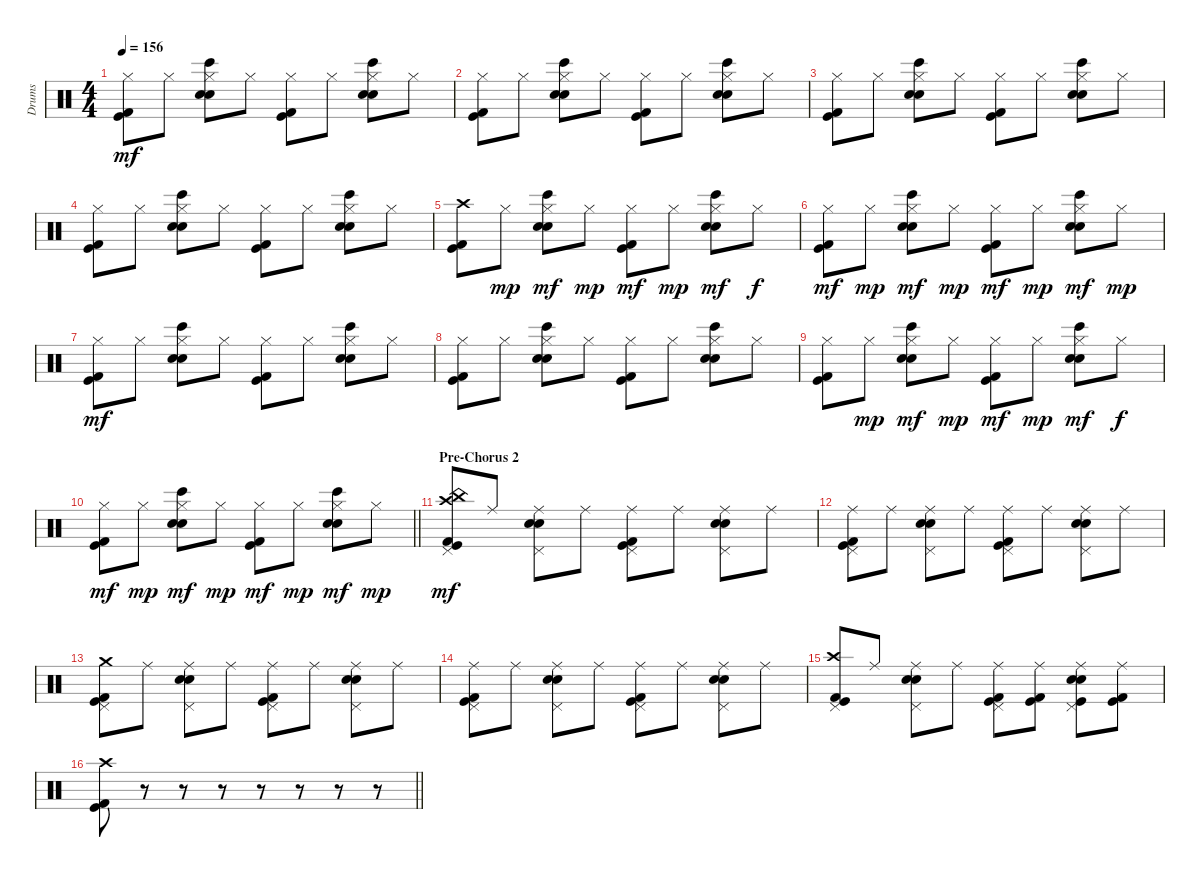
\track ("Drums" "Drums") {instrument percussion}
\staff {score}
\articulation defaults
\ts (4 4)
\tempo 156
\clef neutral
\ks c
("Hi-Hat (closed)" "Kick (hit) 2" "Kick (hit)").8{dy mf} "Hi-Hat (closed)".8 ("Hi-Hat (closed)" "Bongo High (hit)" "Snare (hit) 2" "Electric Snare (hit)").8 "Hi-Hat (closed)".8 ("Hi-Hat (closed)" "Kick (hit) 2" "Kick (hit)").8 "Hi-Hat (closed)".8 ("Hi-Hat (closed)" "Bongo High (hit)" "Snare (hit) 2" "Electric Snare (hit)").8 "Hi-Hat (closed)".8 |
("Hi-Hat (closed)" "Kick (hit) 2" "Kick (hit)").8 "Hi-Hat (closed)".8 ("Hi-Hat (closed)" "Bongo High (hit)" "Snare (hit) 2" "Electric Snare (hit)").8 "Hi-Hat (closed)".8 ("Hi-Hat (closed)" "Kick (hit) 2" "Kick (hit)").8 "Hi-Hat (closed)".8 ("Hi-Hat (closed)" "Bongo High (hit)" "Snare (hit) 2" "Electric Snare (hit)").8 "Hi-Hat (closed)".8 |
("Hi-Hat (closed)" "Kick (hit) 2" "Kick (hit)").8 "Hi-Hat (closed)".8 ("Hi-Hat (closed)" "Bongo High (hit)" "Snare (hit) 2" "Electric Snare (hit)").8 "Hi-Hat (closed)".8 ("Hi-Hat (closed)" "Kick (hit) 2" "Kick (hit)").8 "Hi-Hat (closed)".8 ("Hi-Hat (closed)" "Bongo High (hit)" "Snare (hit) 2" "Electric Snare (hit)").8 "Hi-Hat (closed)".8 |
("Hi-Hat (closed)" "Kick (hit) 2" "Kick (hit)").8 "Hi-Hat (closed)".8 ("Hi-Hat (closed)" "Bongo High (hit)" "Snare (hit) 2" "Electric Snare (hit)").8 "Hi-Hat (closed)".8 ("Hi-Hat (closed)" "Kick (hit) 2" "Kick (hit)").8 "Hi-Hat (closed)".8 ("Hi-Hat (closed)" "Bongo High (hit)" "Snare (hit) 2" "Electric Snare (hit)").8 "Hi-Hat (closed)".8 |
("Crash high (hit)" "Kick (hit) 2" "Kick (hit)").8 "Hi-Hat (closed)".8{dy mp} ("Hi-Hat (closed)" "Bongo High (hit)" "Snare (hit) 2" "Electric Snare (hit)").8{dy mf} "Hi-Hat (closed)".8{dy mp} ("Hi-Hat (closed)" "Kick (hit) 2" "Kick (hit)").8{dy mf} "Hi-Hat (closed)".8{dy mp} ("Hi-Hat (closed)" "Bongo High (hit)" "Snare (hit) 2" "Electric Snare (hit)").8{dy mf} "Hi-Hat (closed)".8{dy f} |
("Hi-Hat (closed)" "Kick (hit) 2" "Kick (hit)").8{dy mf} "Hi-Hat (closed)".8{dy mp} ("Hi-Hat (closed)" "Bongo High (hit)" "Snare (hit) 2" "Electric Snare (hit)").8{dy mf} "Hi-Hat (closed)".8{dy mp} ("Hi-Hat (closed)" "Kick (hit) 2" "Kick (hit)").8{dy mf} "Hi-Hat (closed)".8{dy mp} ("Hi-Hat (closed)" "Bongo High (hit)" "Snare (hit) 2" "Electric Snare (hit)").8{dy mf} "Hi-Hat (closed)".8{dy mp} |
("Hi-Hat (closed)" "Kick (hit) 2" "Kick (hit)").8{dy mf} "Hi-Hat (closed)".8 ("Hi-Hat (closed)" "Bongo High (hit)" "Snare (hit) 2" "Electric Snare (hit)").8 "Hi-Hat (closed)".8 ("Hi-Hat (closed)" "Kick (hit) 2" "Kick (hit)").8 "Hi-Hat (closed)".8 ("Hi-Hat (closed)" "Bongo High (hit)" "Snare (hit) 2" "Electric Snare (hit)").8 "Hi-Hat (closed)".8 |
("Hi-Hat (closed)" "Kick (hit) 2" "Kick (hit)").8 "Hi-Hat (closed)".8 ("Hi-Hat (closed)" "Bongo High (hit)" "Snare (hit) 2" "Electric Snare (hit)").8 "Hi-Hat (closed)".8 ("Hi-Hat (closed)" "Kick (hit) 2" "Kick (hit)").8 "Hi-Hat (closed)".8 ("Hi-Hat (closed)" "Bongo High (hit)" "Snare (hit) 2" "Electric Snare (hit)").8 "Hi-Hat (closed)".8 |
("Hi-Hat (closed)" "Kick (hit) 2" "Kick (hit)").8 "Hi-Hat (closed)".8{dy mp} ("Hi-Hat (closed)" "Bongo High (hit)" "Snare (hit) 2" "Electric Snare (hit)").8{dy mf} "Hi-Hat (closed)".8{dy mp} ("Hi-Hat (closed)" "Kick (hit) 2" "Kick (hit)").8{dy mf} "Hi-Hat (closed)".8{dy mp} ("Hi-Hat (closed)" "Bongo High (hit)" "Snare (hit) 2" "Electric Snare (hit)").8{dy mf} "Hi-Hat (closed)".8{dy f} |
\barLineRight lightlight
("Hi-Hat (closed)" "Kick (hit) 2" "Kick (hit)").8{dy mf} "Hi-Hat (closed)".8{dy mp} ("Hi-Hat (closed)" "Bongo High (hit)" "Snare (hit) 2" "Electric Snare (hit)").8{dy mf} "Hi-Hat (closed)".8{dy mp} ("Hi-Hat (closed)" "Kick (hit) 2" "Kick (hit)").8{dy mf} "Hi-Hat (closed)".8{dy mp} ("Hi-Hat (closed)" "Bongo High (hit)" "Snare (hit) 2" "Electric Snare (hit)").8{dy mf} "Hi-Hat (closed)".8{dy mp} |
\section ("" "Pre-Chorus 2")
("Crash high (hit)" "China (hit)" "Pedal Hi-Hat (hit)" "Kick (hit) 2" "Kick (hit)").8{dy mf} "Ride (middle)".8 ("Ride (middle)" "Pedal Hi-Hat (hit)" "Snare (hit) 2" "Electric Snare (hit)").8 "Ride (middle)".8 ("Ride (middle)" "Pedal Hi-Hat (hit)" "Kick (hit) 2" "Kick (hit)").8 "Ride (middle)".8 ("Ride (middle)" "Pedal Hi-Hat (hit)" "Snare (hit) 2" "Electric Snare (hit)").8 "Ride (middle)".8 |
("Ride (middle)" "Pedal Hi-Hat (hit)" "Kick (hit) 2" "Kick (hit)").8 "Ride (middle)".8 ("Ride (middle)" "Pedal Hi-Hat (hit)" "Snare (hit) 2" "Electric Snare (hit)").8 "Ride (middle)".8 ("Ride (middle)" "Pedal Hi-Hat (hit)" "Kick (hit) 2" "Kick (hit)").8 "Ride (middle)".8 ("Ride (middle)" "Pedal Hi-Hat (hit)" "Snare (hit) 2" "Electric Snare (hit)").8 "Ride (middle)".8 |
("Crash medium (hit)" "Pedal Hi-Hat (hit)" "Kick (hit) 2" "Kick (hit)").8 "Ride (middle)".8 ("Ride (middle)" "Pedal Hi-Hat (hit)" "Snare (hit) 2" "Electric Snare (hit)").8 "Ride (middle)".8 ("Ride (middle)" "Pedal Hi-Hat (hit)" "Kick (hit) 2" "Kick (hit)").8 "Ride (middle)".8 ("Ride (middle)" "Pedal Hi-Hat (hit)" "Snare (hit) 2" "Electric Snare (hit)").8 "Ride (middle)".8 |
("Ride (middle)" "Pedal Hi-Hat (hit)" "Kick (hit) 2" "Kick (hit)").8 "Ride (middle)".8 ("Ride (middle)" "Pedal Hi-Hat (hit)" "Snare (hit) 2" "Electric Snare (hit)").8 "Ride (middle)".8 ("Ride (middle)" "Pedal Hi-Hat (hit)" "Kick (hit) 2" "Kick (hit)").8 "Ride (middle)".8 ("Ride (middle)" "Pedal Hi-Hat (hit)" "Snare (hit) 2" "Electric Snare (hit)").8 "Ride (middle)".8 |
("Crash high (hit)" "Pedal Hi-Hat (hit)" "Kick (hit) 2" "Kick (hit)").8 "Ride (middle)".8 ("Ride (middle)" "Pedal Hi-Hat (hit)" "Snare (hit) 2" "Electric Snare (hit)").8 "Ride (middle)".8 ("Ride (middle)" "Pedal Hi-Hat (hit)" "Kick (hit) 2" "Kick (hit)").8 ("Ride (middle)" "Kick (hit) 2" "Kick (hit)").8 ("Ride (middle)" "Pedal Hi-Hat (hit)" "Snare (hit) 2" "Electric Snare (hit)" "Kick (hit)").8 ("Ride (middle)" "Kick (hit) 2" "Kick (hit)").8 |
\barLineRight lightlight
("Crash high (hit)" "Kick (hit) 2" "Kick (hit)").8 r.8 r.8 r.8 r.8 r.8 r.8 r.8
